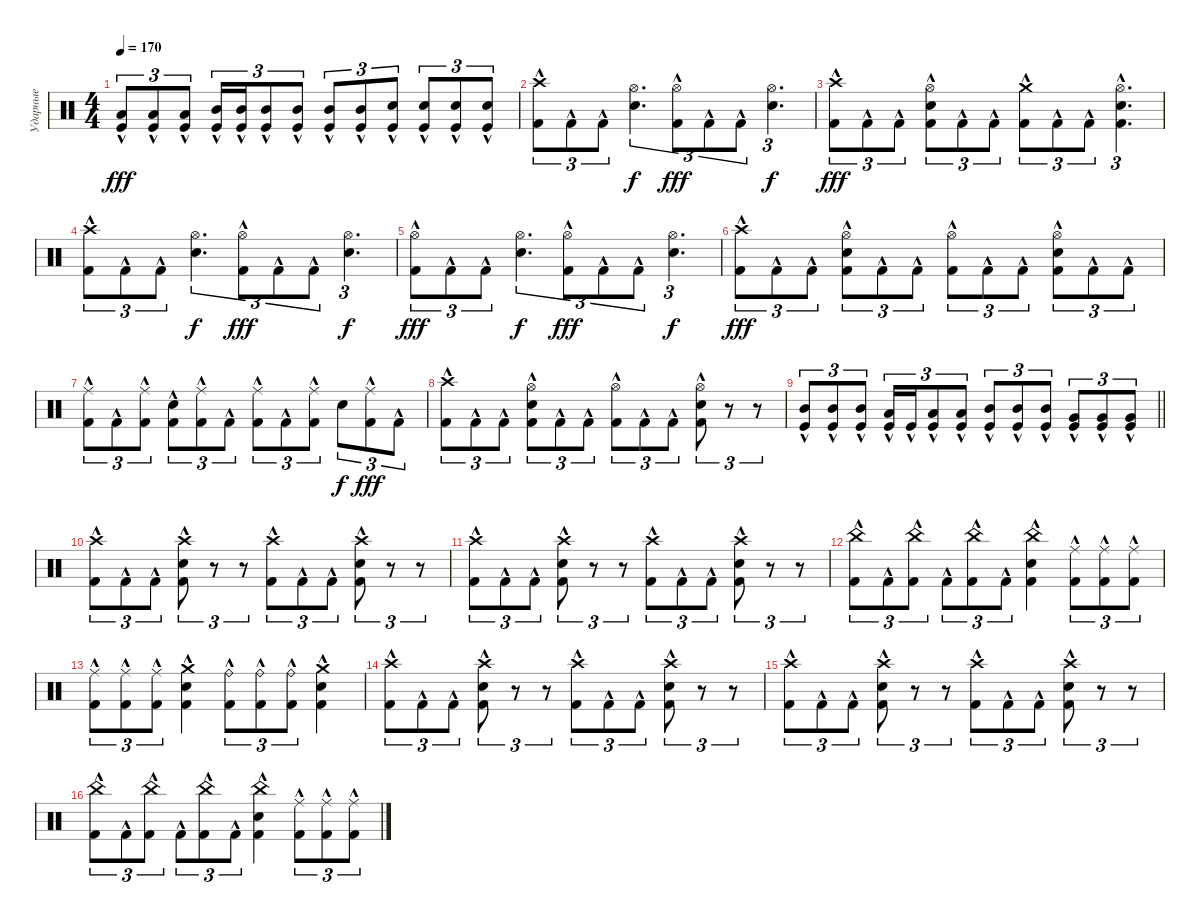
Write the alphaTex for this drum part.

\track ("Ударные" "Ударные") {instrument percussion}
\staff {score}
\articulation defaults
\ts (4 4)
\tempo 170
\clef neutral
\ks c
("Low Tom (hit)"{hac} "Kick (hit)"{hac}).8{tu (3 2) dy fff} ("Low Tom (hit)"{hac} "Kick (hit)"{hac}).8{tu (3 2)} ("Low Tom (hit)"{hac} "Kick (hit)"{hac}).8{tu (3 2)} ("Mid Tom (hit)" "Kick (hit)"{hac}).16{tu (3 2)} ("Mid Tom (hit)" "Kick (hit)"{hac}).16{tu (3 2)} ("Mid Tom (hit)" "Kick (hit)"{hac}).8{tu (3 2)} ("Mid Tom (hit)" "Kick (hit)"{hac}).8{tu (3 2)} ("Mid Tom (hit)" "Kick (hit)"{hac}).8{tu (3 2)} ("Mid Tom (hit)" "Kick (hit)"{hac}).8{tu (3 2)} ("Snare (hit) 2" "Kick (hit)"{hac}).8{tu (3 2)} ("Snare (hit) 2" "Kick (hit)"{hac}).8{tu (3 2)} ("Snare (hit) 2" "Kick (hit)"{hac}).8{tu (3 2)} ("Snare (hit) 2" "Kick (hit)"{hac}).8{tu (3 2)} |
("Kick (hit) 2"{hac} "Crash high (hit)").8{tu (3 2)} "Kick (hit) 2"{hac}.8{tu (3 2)} "Kick (hit) 2"{hac}.8{tu (3 2)} ("Snare (hit) 2" "Hi-Hat (open)").4{d tu (3 2) dy f} ("Kick (hit) 2"{hac} "Hi-Hat (open)").8{tu (3 2) dy fff} "Kick (hit) 2"{hac}.8{tu (3 2)} "Kick (hit) 2"{hac}.8{tu (3 2)} ("Snare (hit) 2" "Hi-Hat (open)").4{d tu (3 2) dy f} |
("Kick (hit) 2"{hac} "Crash high (hit)").8{tu (3 2) dy fff} "Kick (hit) 2"{hac}.8{tu (3 2)} "Kick (hit) 2"{hac}.8{tu (3 2)} ("Kick (hit) 2"{hac} "Snare (hit) 2" "Hi-Hat (open)").8{tu (3 2)} "Kick (hit) 2"{hac}.8{tu (3 2)} "Kick (hit) 2"{hac}.8{tu (3 2)} ("Kick (hit) 2"{hac} "Crash medium (hit)").8{tu (3 2)} "Kick (hit) 2"{hac}.8{tu (3 2)} "Kick (hit) 2"{hac}.8{tu (3 2)} ("Kick (hit) 2"{hac} "Snare (hit) 2" "Hi-Hat (open)").4{d tu (3 2)} |
("Kick (hit) 2"{hac} "Crash high (hit)").8{tu (3 2)} "Kick (hit) 2"{hac}.8{tu (3 2)} "Kick (hit) 2"{hac}.8{tu (3 2)} ("Snare (hit) 2" "Hi-Hat (open)").4{d tu (3 2) dy f} ("Kick (hit) 2"{hac} "Hi-Hat (open)").8{tu (3 2) dy fff} "Kick (hit) 2"{hac}.8{tu (3 2)} "Kick (hit) 2"{hac}.8{tu (3 2)} ("Snare (hit) 2" "Hi-Hat (open)").4{d tu (3 2) dy f} |
("Kick (hit) 2"{hac} "Hi-Hat (open)").8{tu (3 2) dy fff} "Kick (hit) 2"{hac}.8{tu (3 2)} "Kick (hit) 2"{hac}.8{tu (3 2)} ("Snare (hit) 2" "Hi-Hat (open)").4{d tu (3 2) dy f} ("Kick (hit) 2"{hac} "Hi-Hat (open)").8{tu (3 2) dy fff} "Kick (hit) 2"{hac}.8{tu (3 2)} "Kick (hit) 2"{hac}.8{tu (3 2)} ("Snare (hit) 2" "Hi-Hat (open)").4{d tu (3 2) dy f} |
("Kick (hit) 2"{hac} "Crash high (hit)").8{tu (3 2) dy fff} "Kick (hit) 2"{hac}.8{tu (3 2)} "Kick (hit) 2"{hac}.8{tu (3 2)} ("Kick (hit) 2"{hac} "Snare (hit) 2" "Hi-Hat (open)").8{tu (3 2)} "Kick (hit) 2"{hac}.8{tu (3 2)} "Kick (hit) 2"{hac}.8{tu (3 2)} ("Kick (hit) 2"{hac} "Hi-Hat (open)").8{tu (3 2)} "Kick (hit) 2"{hac}.8{tu (3 2)} "Kick (hit) 2"{hac}.8{tu (3 2)} ("Kick (hit) 2"{hac} "Snare (hit) 2" "Hi-Hat (open)").8{tu (3 2)} "Kick (hit) 2"{hac}.8{tu (3 2)} "Kick (hit) 2"{hac}.8{tu (3 2)} |
("Kick (hit) 2"{hac} "Ride (middle)"{hac}).8{tu (3 2)} "Kick (hit) 2"{hac}.8{tu (3 2)} ("Ride (middle)"{hac} "Kick (hit) 2"{hac}).8{tu (3 2)} ("Kick (hit) 2"{hac} "Snare (hit) 2").8{tu (3 2)} ("Ride (middle)"{hac} "Kick (hit) 2"{hac}).8{tu (3 2)} "Kick (hit) 2"{hac}.8{tu (3 2)} ("Kick (hit) 2"{hac} "Ride (middle)"{hac}).8{tu (3 2)} "Kick (hit) 2"{hac}.8{tu (3 2)} ("Ride (middle)"{hac} "Kick (hit) 2"{hac}).8{tu (3 2)} "Snare (hit) 2".8{tu (3 2) dy f} ("Ride (middle)"{hac} "Kick (hit) 2"{hac}).8{tu (3 2) dy fff} "Kick (hit) 2"{hac}.8{tu (3 2)} |
("Kick (hit) 2"{hac} "Crash high (hit)").8{tu (3 2)} "Kick (hit) 2"{hac}.8{tu (3 2)} "Kick (hit) 2"{hac}.8{tu (3 2)} ("Kick (hit) 2"{hac} "Snare (hit) 2" "Hi-Hat (open)").8{tu (3 2)} "Kick (hit) 2"{hac}.8{tu (3 2)} "Kick (hit) 2"{hac}.8{tu (3 2)} ("Kick (hit) 2"{hac} "Hi-Hat (open)").8{tu (3 2)} "Kick (hit) 2"{hac}.8{tu (3 2)} "Kick (hit) 2"{hac}.8{tu (3 2)} ("Kick (hit) 2"{hac} "Snare (hit) 2" "Hi-Hat (open)").8{tu (3 2)} r.8{tu (3 2)} r.8{tu (3 2)} |
\barLineRight lightlight
("Mid Tom (hit)"{hac} "Kick (hit)"{hac}).8{tu (3 2)} ("Mid Tom (hit)"{hac} "Kick (hit)"{hac}).8{tu (3 2)} ("Mid Tom (hit)"{hac} "Kick (hit)"{hac}).8{tu (3 2)} ("Low Tom (hit)"{hac} "Kick (hit)"{hac}).16{tu (3 2)} "Kick (hit)"{hac}.16{tu (3 2)} ("Low Tom (hit)"{hac} "Kick (hit)"{hac}).8{tu (3 2)} ("Low Tom (hit)"{hac} "Kick (hit)"{hac}).8{tu (3 2)} ("Mid Tom (hit)"{hac} "Kick (hit)"{hac}).8{tu (3 2)} ("Mid Tom (hit)"{hac} "Kick (hit)"{hac}).8{tu (3 2)} ("Mid Tom (hit)"{hac} "Kick (hit)"{hac}).8{tu (3 2)} ("Very Low Tom (hit)"{hac} "Kick (hit)"{hac}).8{tu (3 2)} ("Very Low Tom (hit)"{hac} "Kick (hit)"{hac}).8{tu (3 2)} ("Very Low Tom (hit)"{hac} "Kick (hit)"{hac}).8{tu (3 2)} |
("Kick (hit) 2"{hac} "Crash high (hit)"{hac}).8{tu (3 2)} "Kick (hit) 2"{hac}.8{tu (3 2)} "Kick (hit) 2"{hac}.8{tu (3 2)} ("Kick (hit) 2"{hac} "Snare (hit) 2" "Crash high (hit)").8{tu (3 2)} r.8{tu (3 2)} r.8{tu (3 2)} ("Kick (hit) 2"{hac} "Crash high (hit)").8{tu (3 2)} "Kick (hit) 2"{hac}.8{tu (3 2)} "Kick (hit) 2"{hac}.8{tu (3 2)} ("Kick (hit) 2"{hac} "Snare (hit) 2" "Crash high (hit)").8{tu (3 2)} r.8{tu (3 2)} r.8{tu (3 2)} |
("Kick (hit) 2"{hac} "Crash high (hit)").8{tu (3 2)} "Kick (hit) 2"{hac}.8{tu (3 2)} "Kick (hit) 2"{hac}.8{tu (3 2)} ("Kick (hit) 2"{hac} "Snare (hit) 2" "Crash high (hit)").8{tu (3 2)} r.8{tu (3 2)} r.8{tu (3 2)} ("Kick (hit) 2"{hac} "Crash high (hit)").8{tu (3 2)} "Kick (hit) 2"{hac}.8{tu (3 2)} "Kick (hit) 2"{hac}.8{tu (3 2)} ("Kick (hit) 2"{hac} "Snare (hit) 2" "Crash high (hit)").8{tu (3 2)} r.8{tu (3 2)} r.8{tu (3 2)} |
("Kick (hit) 2"{hac} "China (hit)"{hac}).8{tu (3 2)} "Kick (hit) 2"{hac}.8{tu (3 2)} ("Kick (hit) 2"{hac} "China (hit)"{hac}).8{tu (3 2)} "Kick (hit) 2"{hac}.8{tu (3 2)} ("Kick (hit) 2"{hac} "China (hit)"{hac}).8{tu (3 2)} "Kick (hit) 2"{hac}.8{tu (3 2)} ("Kick (hit) 2"{hac} "China (hit)"{hac} "Snare (hit) 2").4 ("Kick (hit) 2"{hac} "Ride (middle)"{hac}).8{tu (3 2)} ("Kick (hit) 2"{hac} "Ride (middle)"{hac}).8{tu (3 2)} ("Kick (hit) 2"{hac} "Ride (middle)"{hac}).8{tu (3 2)} |
("Kick (hit) 2"{hac} "Ride (middle)"{hac}).8{tu (3 2)} ("Kick (hit) 2"{hac} "Ride (middle)"{hac}).8{tu (3 2)} ("Kick (hit) 2"{hac} "Ride (middle)"{hac}).8{tu (3 2)} ("Kick (hit) 2"{hac} "Crash medium (hit)" "Snare (hit) 2").4 ("Kick (hit) 2"{hac} "Ride (bell)"{hac}).8{tu (3 2)} ("Kick (hit) 2"{hac} "Ride (bell)"{hac}).8{tu (3 2)} ("Kick (hit) 2"{hac} "Ride (bell)"{hac}).8{tu (3 2)} ("Kick (hit) 2"{hac} "Crash medium (hit)" "Snare (hit) 2").4 |
("Kick (hit) 2"{hac} "Crash high (hit)").8{tu (3 2)} "Kick (hit) 2"{hac}.8{tu (3 2)} "Kick (hit) 2"{hac}.8{tu (3 2)} ("Kick (hit) 2"{hac} "Snare (hit) 2" "Crash high (hit)").8{tu (3 2)} r.8{tu (3 2)} r.8{tu (3 2)} ("Kick (hit) 2"{hac} "Crash high (hit)").8{tu (3 2)} "Kick (hit) 2"{hac}.8{tu (3 2)} "Kick (hit) 2"{hac}.8{tu (3 2)} ("Kick (hit) 2"{hac} "Snare (hit) 2" "Crash high (hit)").8{tu (3 2)} r.8{tu (3 2)} r.8{tu (3 2)} |
("Kick (hit) 2"{hac} "Crash high (hit)").8{tu (3 2)} "Kick (hit) 2"{hac}.8{tu (3 2)} "Kick (hit) 2"{hac}.8{tu (3 2)} ("Kick (hit) 2"{hac} "Snare (hit) 2" "Crash high (hit)").8{tu (3 2)} r.8{tu (3 2)} r.8{tu (3 2)} ("Kick (hit) 2"{hac} "Crash high (hit)").8{tu (3 2)} "Kick (hit) 2"{hac}.8{tu (3 2)} "Kick (hit) 2"{hac}.8{tu (3 2)} ("Kick (hit) 2"{hac} "Snare (hit) 2" "Crash high (hit)").8{tu (3 2)} r.8{tu (3 2)} r.8{tu (3 2)} |
("Kick (hit) 2"{hac} "China (hit)"{hac}).8{tu (3 2)} "Kick (hit) 2"{hac}.8{tu (3 2)} ("Kick (hit) 2"{hac} "China (hit)"{hac}).8{tu (3 2)} "Kick (hit) 2"{hac}.8{tu (3 2)} ("Kick (hit) 2"{hac} "China (hit)"{hac}).8{tu (3 2)} "Kick (hit) 2"{hac}.8{tu (3 2)} ("Kick (hit) 2"{hac} "China (hit)"{hac} "Snare (hit) 2").4 ("Kick (hit) 2"{hac} "Ride (middle)"{hac}).8{tu (3 2)} ("Kick (hit) 2"{hac} "Ride (middle)"{hac}).8{tu (3 2)} ("Kick (hit) 2"{hac} "Ride (middle)"{hac}).8{tu (3 2)}
